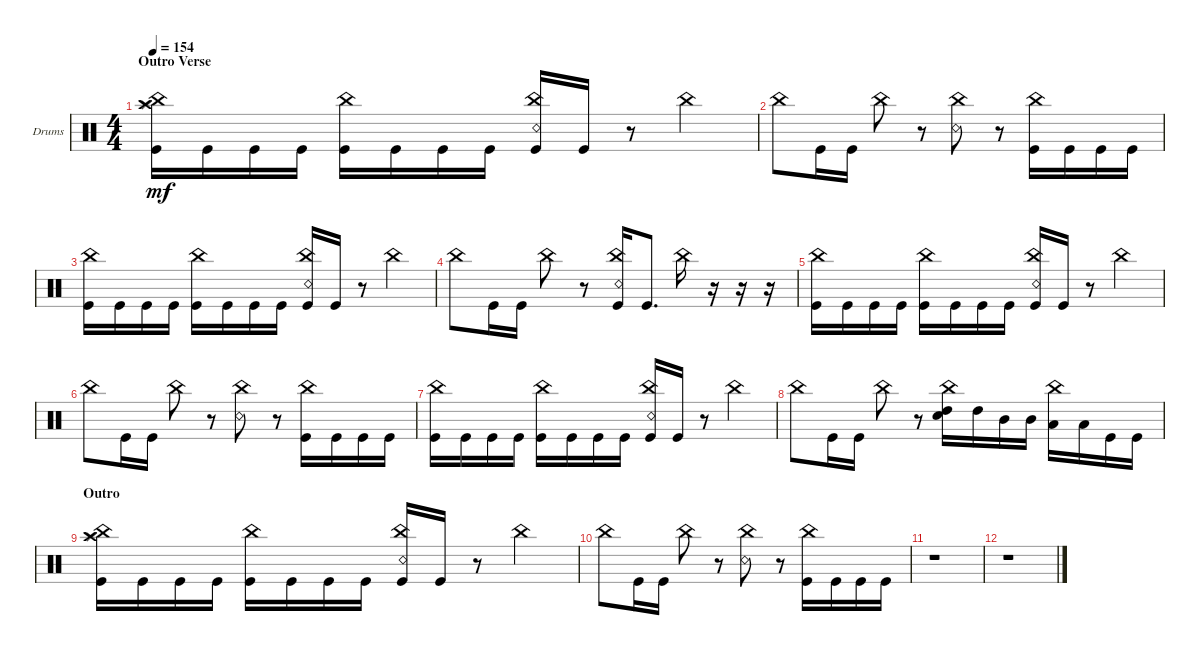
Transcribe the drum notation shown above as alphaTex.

\defaultSystemsLayout 4
\bracketExtendMode groupsimilarinstruments
\firstSystemTrackNameOrientation horizontal
\otherSystemsTrackNameOrientation horizontal
\track ("Drums" "Drums") {instrument percussion}
\staff {score}
\articulation defaults
\ts (4 4)
\section ("" "Outro Verse")
\tempo 154
\clef neutral
\ks c
("Kick (hit)" "Splash (hit)" "China (hit)" "Crash high (hit)").16{dy mf} "Kick (hit)".16 "Kick (hit)".16 "Kick (hit)".16 ("Kick (hit)" "China (hit)").16 "Kick (hit)".16 "Kick (hit)".16 "Kick (hit)".16 ("Kick (hit)" "Snare (rim shot)" "China (hit)").16 "Kick (hit)".16 r.8 "China (hit)".4 |
"China (hit)".8 "Kick (hit)".16 "Kick (hit)".16 "China (hit)".8 r.8 ("Snare (rim shot)" "China (hit)").8 r.8 ("Kick (hit)" "China (hit)").16 "Kick (hit)".16 "Kick (hit)".16 "Kick (hit)".16 |
("Kick (hit)" "China (hit)").16 "Kick (hit)".16 "Kick (hit)".16 "Kick (hit)".16 ("Kick (hit)" "China (hit)").16 "Kick (hit)".16 "Kick (hit)".16 "Kick (hit)".16 ("Kick (hit)" "Snare (rim shot)" "China (hit)").16 "Kick (hit)".16 r.8 "China (hit)".4 |
"China (hit)".8 "Kick (hit)".16 "Kick (hit)".16 "China (hit)".8 r.8 ("Snare (rim shot)" "China (hit)" "Kick (hit)").16 "Kick (hit)".8{d} "China (hit)".16 r.16 r.16 r.16 |
("Kick (hit)" "China (hit)").16 "Kick (hit)".16 "Kick (hit)".16 "Kick (hit)".16 ("Kick (hit)" "China (hit)").16 "Kick (hit)".16 "Kick (hit)".16 "Kick (hit)".16 ("Kick (hit)" "Snare (rim shot)" "China (hit)").16 "Kick (hit)".16 r.8 "China (hit)".4 |
"China (hit)".8 "Kick (hit)".16 "Kick (hit)".16 "China (hit)".8 r.8 ("Snare (rim shot)" "China (hit)").8 r.8 ("Kick (hit)" "China (hit)").16 "Kick (hit)".16 "Kick (hit)".16 "Kick (hit)".16 |
("Kick (hit)" "China (hit)").16 "Kick (hit)".16 "Kick (hit)".16 "Kick (hit)".16 ("Kick (hit)" "China (hit)").16 "Kick (hit)".16 "Kick (hit)".16 "Kick (hit)".16 ("Kick (hit)" "Snare (rim shot)" "China (hit)").16 "Kick (hit)".16 r.8 "China (hit)".4 |
"China (hit)".8 "Kick (hit)".16 "Kick (hit)".16 "China (hit)".8 r.8 ("High Tom (hit)" "Snare (hit) 2" "China (hit)").16 "High Tom (hit)".16 "Mid Tom (hit)".16 "Mid Tom (hit)".16 ("Low Tom (hit)" "China (hit)").16 "Low Tom (hit)".16 "Kick (hit)".16 "Kick (hit)".16 |
\section ("" "Outro")
("Kick (hit)" "Splash (hit)" "China (hit)" "Crash high (hit)").16 "Kick (hit)".16 "Kick (hit)".16 "Kick (hit)".16 ("Kick (hit)" "China (hit)").16 "Kick (hit)".16 "Kick (hit)".16 "Kick (hit)".16 ("Kick (hit)" "Snare (rim shot)" "China (hit)").16 "Kick (hit)".16 r.8 "China (hit)".4 |
"China (hit)".8 "Kick (hit)".16 "Kick (hit)".16 "China (hit)".8 r.8 ("Snare (rim shot)" "China (hit)").8 r.8 ("Kick (hit)" "China (hit)").16 "Kick (hit)".16 "Kick (hit)".16 "Kick (hit)".16 |
r.1 |
r.1
